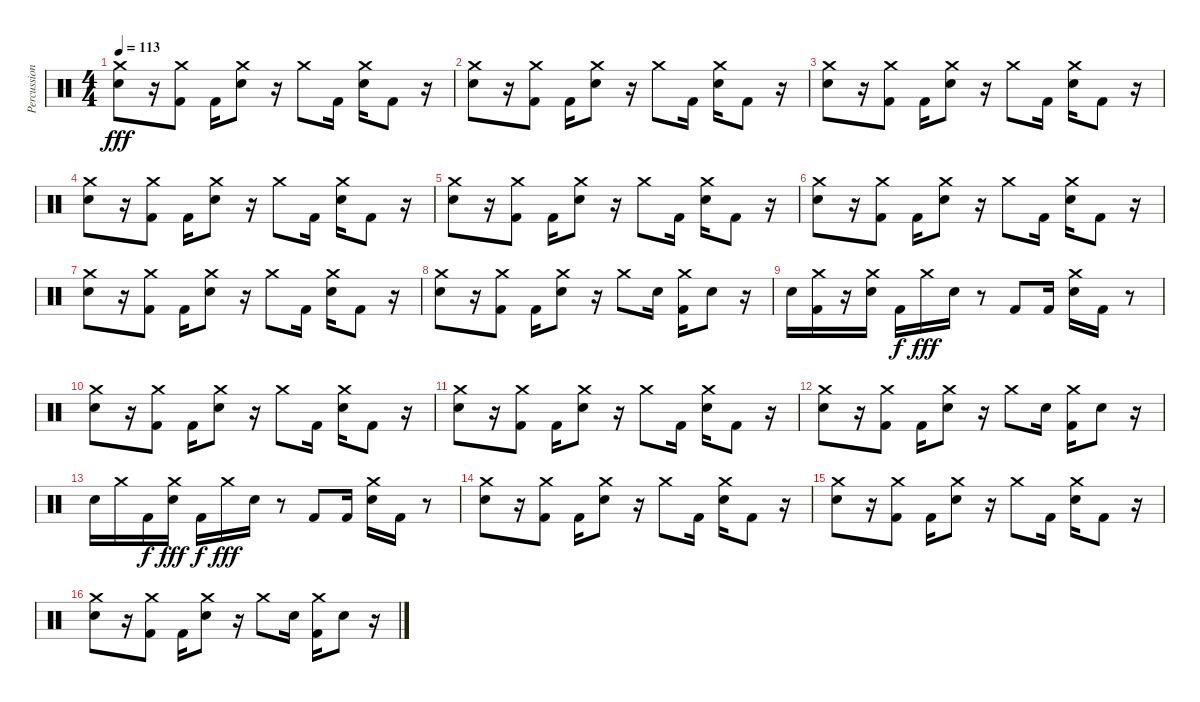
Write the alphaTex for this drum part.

\track ("Percussion" "Percussion") {instrument percussion}
\staff {score}
\articulation defaults
\ts (4 4)
\tempo 113
\clef neutral
\ks c
("Crash medium (hit)" "Electric Snare (hit)").8{dy fff} r.16 ("Crash medium (hit)" "Kick (hit) 2").8 "Kick (hit) 2".16 ("Crash medium (hit)" "Electric Snare (hit)").8 r.16 "Crash medium (hit)".8 "Kick (hit) 2".16 ("Crash medium (hit)" "Electric Snare (hit)").16 "Kick (hit) 2".8 r.16 |
("Crash medium (hit)" "Electric Snare (hit)").8 r.16 ("Crash medium (hit)" "Kick (hit) 2").8 "Kick (hit) 2".16 ("Crash medium (hit)" "Electric Snare (hit)").8 r.16 "Crash medium (hit)".8 "Kick (hit) 2".16 ("Crash medium (hit)" "Electric Snare (hit)").16 "Kick (hit) 2".8 r.16 |
("Crash medium (hit)" "Electric Snare (hit)").8 r.16 ("Crash medium (hit)" "Kick (hit) 2").8 "Kick (hit) 2".16 ("Crash medium (hit)" "Electric Snare (hit)").8 r.16 "Crash medium (hit)".8 "Kick (hit) 2".16 ("Crash medium (hit)" "Electric Snare (hit)").16 "Kick (hit) 2".8 r.16 |
("Crash medium (hit)" "Electric Snare (hit)").8 r.16 ("Crash medium (hit)" "Kick (hit) 2").8 "Kick (hit) 2".16 ("Crash medium (hit)" "Electric Snare (hit)").8 r.16 "Crash medium (hit)".8 "Kick (hit) 2".16 ("Crash medium (hit)" "Electric Snare (hit)").16 "Kick (hit) 2".8 r.16 |
("Crash medium (hit)" "Electric Snare (hit)").8 r.16 ("Crash medium (hit)" "Kick (hit) 2").8 "Kick (hit) 2".16 ("Crash medium (hit)" "Electric Snare (hit)").8 r.16 "Crash medium (hit)".8 "Kick (hit) 2".16 ("Crash medium (hit)" "Electric Snare (hit)").16 "Kick (hit) 2".8 r.16 |
("Crash medium (hit)" "Electric Snare (hit)").8 r.16 ("Crash medium (hit)" "Kick (hit) 2").8 "Kick (hit) 2".16 ("Crash medium (hit)" "Electric Snare (hit)").8 r.16 "Crash medium (hit)".8 "Kick (hit) 2".16 ("Crash medium (hit)" "Electric Snare (hit)").16 "Kick (hit) 2".8 r.16 |
("Crash medium (hit)" "Electric Snare (hit)").8 r.16 ("Crash medium (hit)" "Kick (hit) 2").8 "Kick (hit) 2".16 ("Crash medium (hit)" "Electric Snare (hit)").8 r.16 "Crash medium (hit)".8 "Kick (hit) 2".16 ("Crash medium (hit)" "Electric Snare (hit)").16 "Kick (hit) 2".8 r.16 |
("Crash medium (hit)" "Electric Snare (hit)").8 r.16 ("Crash medium (hit)" "Kick (hit) 2").8 "Kick (hit) 2".16 ("Crash medium (hit)" "Electric Snare (hit)").8 r.16 "Crash medium (hit)".8 "Electric Snare (hit)".16 ("Crash medium (hit)" "Kick (hit) 2").16 "Electric Snare (hit)".8 r.16 |
"Electric Snare (hit)".16 ("Crash medium (hit)" "Kick (hit) 2").16 r.16 ("Crash medium (hit)" "Electric Snare (hit)").16 "Kick (hit) 2".16{dy f} "Crash medium (hit)".16{dy fff} "Electric Snare (hit)".16 r.8 "Kick (hit) 2".8 "Kick (hit) 2".16 ("Crash medium (hit)" "Electric Snare (hit)").16 "Kick (hit) 2".16 r.8 |
("Crash medium (hit)" "Electric Snare (hit)").8 r.16 ("Crash medium (hit)" "Kick (hit) 2").8 "Kick (hit) 2".16 ("Crash medium (hit)" "Electric Snare (hit)").8 r.16 "Crash medium (hit)".8 "Kick (hit) 2".16 ("Crash medium (hit)" "Electric Snare (hit)").16 "Kick (hit) 2".8 r.16 |
("Crash medium (hit)" "Electric Snare (hit)").8 r.16 ("Crash medium (hit)" "Kick (hit) 2").8 "Kick (hit) 2".16 ("Crash medium (hit)" "Electric Snare (hit)").8 r.16 "Crash medium (hit)".8 "Kick (hit) 2".16 ("Crash medium (hit)" "Electric Snare (hit)").16 "Kick (hit) 2".8 r.16 |
("Crash medium (hit)" "Electric Snare (hit)").8 r.16 ("Crash medium (hit)" "Kick (hit) 2").8 "Kick (hit) 2".16 ("Crash medium (hit)" "Electric Snare (hit)").8 r.16 "Crash medium (hit)".8 "Electric Snare (hit)".16 ("Crash medium (hit)" "Kick (hit) 2").16 "Electric Snare (hit)".8 r.16 |
"Electric Snare (hit)".16 "Crash medium (hit)".16 "Kick (hit) 2".16{dy f} ("Crash medium (hit)" "Electric Snare (hit)").16{dy fff} "Kick (hit) 2".16{dy f} "Crash medium (hit)".16{dy fff} "Electric Snare (hit)".16 r.8 "Kick (hit) 2".8 "Kick (hit) 2".16 ("Crash medium (hit)" "Electric Snare (hit)").16 "Kick (hit) 2".16 r.8 |
("Crash medium (hit)" "Electric Snare (hit)").8 r.16 ("Crash medium (hit)" "Kick (hit) 2").8 "Kick (hit) 2".16 ("Crash medium (hit)" "Electric Snare (hit)").8 r.16 "Crash medium (hit)".8 "Kick (hit) 2".16 ("Crash medium (hit)" "Electric Snare (hit)").16 "Kick (hit) 2".8 r.16 |
("Crash medium (hit)" "Electric Snare (hit)").8 r.16 ("Crash medium (hit)" "Kick (hit) 2").8 "Kick (hit) 2".16 ("Crash medium (hit)" "Electric Snare (hit)").8 r.16 "Crash medium (hit)".8 "Kick (hit) 2".16 ("Crash medium (hit)" "Electric Snare (hit)").16 "Kick (hit) 2".8 r.16 |
("Crash medium (hit)" "Electric Snare (hit)").8 r.16 ("Crash medium (hit)" "Kick (hit) 2").8 "Kick (hit) 2".16 ("Crash medium (hit)" "Electric Snare (hit)").8 r.16 "Crash medium (hit)".8 "Electric Snare (hit)".16 ("Crash medium (hit)" "Kick (hit) 2").16 "Electric Snare (hit)".8 r.16
